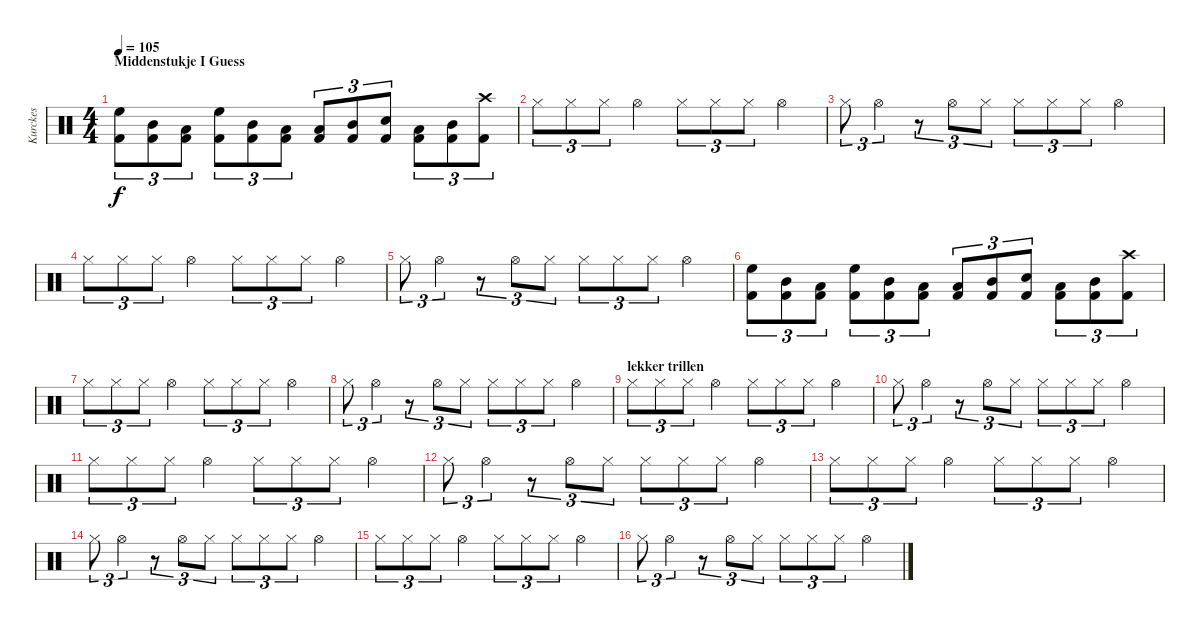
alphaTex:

\track ("Kurckes" "Kurckes") {instrument percussion}
\staff {score}
\articulation defaults
\ts (4 4)
\section ("" "Middenstukje I Guess")
\tempo 105
\clef neutral
\ks c
("High Floor Tom (hit)" "Kick (hit) 2").8{tu (3 2) dy f} ("Mid Tom (hit)" "Kick (hit) 2").8{tu (3 2)} ("Low Floor Tom (hit)" "Kick (hit) 2").8{tu (3 2)} ("High Floor Tom (hit)" "Kick (hit) 2").8{tu (3 2)} ("Mid Tom (hit)" "Kick (hit) 2").8{tu (3 2)} ("Low Floor Tom (hit)" "Kick (hit) 2").8{tu (3 2)} ("Low Floor Tom (hit)" "Kick (hit) 2").8{tu (3 2)} ("Mid Tom (hit)" "Kick (hit) 2").8{tu (3 2)} ("Snare (hit) 2" "Kick (hit) 2").8{tu (3 2)} ("Low Floor Tom (hit)" "Kick (hit) 2").8{tu (3 2)} ("Mid Tom (hit)" "Kick (hit) 2").8{tu (3 2)} ("Crash high (hit)" "Kick (hit) 2").8{tu (3 2)} |
"Hi-Hat (closed)".8{tu (3 2)} "Hi-Hat (closed)".8{tu (3 2)} "Hi-Hat (closed)".8{tu (3 2)} "Hi-Hat (open)".4 "Hi-Hat (closed)".8{tu (3 2)} "Hi-Hat (closed)".8{tu (3 2)} "Hi-Hat (closed)".8{tu (3 2)} "Hi-Hat (open)".4 |
"Hi-Hat (closed)".8{tu (3 2)} "Hi-Hat (open)".4{tu (3 2)} r.8{tu (3 2)} "Hi-Hat (open)".8{tu (3 2)} "Hi-Hat (closed)".8{tu (3 2)} "Hi-Hat (closed)".8{tu (3 2)} "Hi-Hat (closed)".8{tu (3 2)} "Hi-Hat (closed)".8{tu (3 2)} "Hi-Hat (open)".4 |
"Hi-Hat (closed)".8{tu (3 2)} "Hi-Hat (closed)".8{tu (3 2)} "Hi-Hat (closed)".8{tu (3 2)} "Hi-Hat (open)".4 "Hi-Hat (closed)".8{tu (3 2)} "Hi-Hat (closed)".8{tu (3 2)} "Hi-Hat (closed)".8{tu (3 2)} "Hi-Hat (open)".4 |
"Hi-Hat (closed)".8{tu (3 2)} "Hi-Hat (open)".4{tu (3 2)} r.8{tu (3 2)} "Hi-Hat (open)".8{tu (3 2)} "Hi-Hat (closed)".8{tu (3 2)} "Hi-Hat (closed)".8{tu (3 2)} "Hi-Hat (closed)".8{tu (3 2)} "Hi-Hat (closed)".8{tu (3 2)} "Hi-Hat (open)".4 |
("High Floor Tom (hit)" "Kick (hit) 2").8{tu (3 2)} ("Mid Tom (hit)" "Kick (hit) 2").8{tu (3 2)} ("Low Floor Tom (hit)" "Kick (hit) 2").8{tu (3 2)} ("High Floor Tom (hit)" "Kick (hit) 2").8{tu (3 2)} ("Mid Tom (hit)" "Kick (hit) 2").8{tu (3 2)} ("Low Floor Tom (hit)" "Kick (hit) 2").8{tu (3 2)} ("Low Floor Tom (hit)" "Kick (hit) 2").8{tu (3 2)} ("Mid Tom (hit)" "Kick (hit) 2").8{tu (3 2)} ("Snare (hit) 2" "Kick (hit) 2").8{tu (3 2)} ("Low Floor Tom (hit)" "Kick (hit) 2").8{tu (3 2)} ("Mid Tom (hit)" "Kick (hit) 2").8{tu (3 2)} ("Crash high (hit)" "Kick (hit) 2").8{tu (3 2)} |
"Hi-Hat (closed)".8{tu (3 2)} "Hi-Hat (closed)".8{tu (3 2)} "Hi-Hat (closed)".8{tu (3 2)} "Hi-Hat (open)".4 "Hi-Hat (closed)".8{tu (3 2)} "Hi-Hat (closed)".8{tu (3 2)} "Hi-Hat (closed)".8{tu (3 2)} "Hi-Hat (open)".4 |
"Hi-Hat (closed)".8{tu (3 2)} "Hi-Hat (open)".4{tu (3 2)} r.8{tu (3 2)} "Hi-Hat (open)".8{tu (3 2)} "Hi-Hat (closed)".8{tu (3 2)} "Hi-Hat (closed)".8{tu (3 2)} "Hi-Hat (closed)".8{tu (3 2)} "Hi-Hat (closed)".8{tu (3 2)} "Hi-Hat (open)".4 |
\section ("" "lekker trillen")
"Hi-Hat (closed)".8{tu (3 2)} "Hi-Hat (closed)".8{tu (3 2)} "Hi-Hat (closed)".8{tu (3 2)} "Hi-Hat (open)".4 "Hi-Hat (closed)".8{tu (3 2)} "Hi-Hat (closed)".8{tu (3 2)} "Hi-Hat (closed)".8{tu (3 2)} "Hi-Hat (open)".4 |
"Hi-Hat (closed)".8{tu (3 2)} "Hi-Hat (open)".4{tu (3 2)} r.8{tu (3 2)} "Hi-Hat (open)".8{tu (3 2)} "Hi-Hat (closed)".8{tu (3 2)} "Hi-Hat (closed)".8{tu (3 2)} "Hi-Hat (closed)".8{tu (3 2)} "Hi-Hat (closed)".8{tu (3 2)} "Hi-Hat (open)".4 |
"Hi-Hat (closed)".8{tu (3 2)} "Hi-Hat (closed)".8{tu (3 2)} "Hi-Hat (closed)".8{tu (3 2)} "Hi-Hat (open)".4 "Hi-Hat (closed)".8{tu (3 2)} "Hi-Hat (closed)".8{tu (3 2)} "Hi-Hat (closed)".8{tu (3 2)} "Hi-Hat (open)".4 |
"Hi-Hat (closed)".8{tu (3 2)} "Hi-Hat (open)".4{tu (3 2)} r.8{tu (3 2)} "Hi-Hat (open)".8{tu (3 2)} "Hi-Hat (closed)".8{tu (3 2)} "Hi-Hat (closed)".8{tu (3 2)} "Hi-Hat (closed)".8{tu (3 2)} "Hi-Hat (closed)".8{tu (3 2)} "Hi-Hat (open)".4 |
"Hi-Hat (closed)".8{tu (3 2)} "Hi-Hat (closed)".8{tu (3 2)} "Hi-Hat (closed)".8{tu (3 2)} "Hi-Hat (open)".4 "Hi-Hat (closed)".8{tu (3 2)} "Hi-Hat (closed)".8{tu (3 2)} "Hi-Hat (closed)".8{tu (3 2)} "Hi-Hat (open)".4 |
"Hi-Hat (closed)".8{tu (3 2)} "Hi-Hat (open)".4{tu (3 2)} r.8{tu (3 2)} "Hi-Hat (open)".8{tu (3 2)} "Hi-Hat (closed)".8{tu (3 2)} "Hi-Hat (closed)".8{tu (3 2)} "Hi-Hat (closed)".8{tu (3 2)} "Hi-Hat (closed)".8{tu (3 2)} "Hi-Hat (open)".4 |
"Hi-Hat (closed)".8{tu (3 2)} "Hi-Hat (closed)".8{tu (3 2)} "Hi-Hat (closed)".8{tu (3 2)} "Hi-Hat (open)".4 "Hi-Hat (closed)".8{tu (3 2)} "Hi-Hat (closed)".8{tu (3 2)} "Hi-Hat (closed)".8{tu (3 2)} "Hi-Hat (open)".4 |
"Hi-Hat (closed)".8{tu (3 2)} "Hi-Hat (open)".4{tu (3 2)} r.8{tu (3 2)} "Hi-Hat (open)".8{tu (3 2)} "Hi-Hat (closed)".8{tu (3 2)} "Hi-Hat (closed)".8{tu (3 2)} "Hi-Hat (closed)".8{tu (3 2)} "Hi-Hat (closed)".8{tu (3 2)} "Hi-Hat (open)".4
